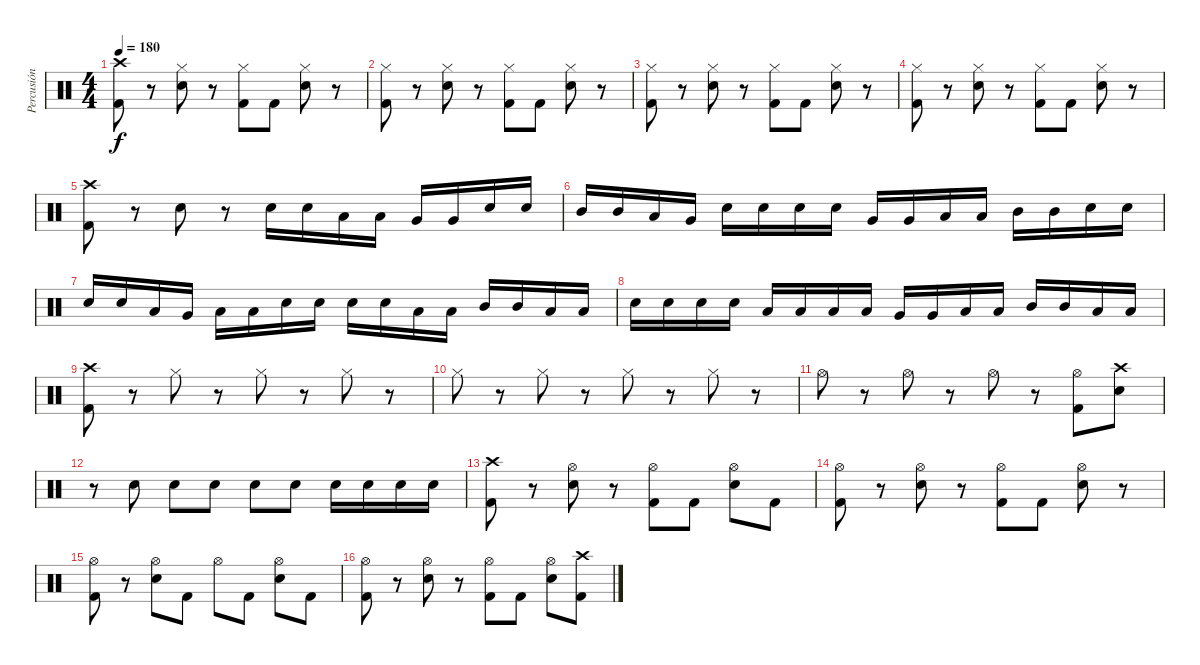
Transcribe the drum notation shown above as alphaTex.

\track ("Percusión" "Percusión") {instrument percussion}
\staff {score}
\articulation defaults
\ts (4 4)
\tempo 180
\clef neutral
\ks c
("Crash high (hit)" "Kick (hit) 2").8{dy f} r.8 ("Hi-Hat (closed)" "Electric Snare (hit)").8 r.8 ("Hi-Hat (closed)" "Kick (hit) 2").8 "Kick (hit) 2".8 ("Hi-Hat (closed)" "Electric Snare (hit)").8 r.8 |
("Hi-Hat (closed)" "Kick (hit) 2").8 r.8 ("Hi-Hat (closed)" "Electric Snare (hit)").8 r.8 ("Hi-Hat (closed)" "Kick (hit) 2").8 "Kick (hit) 2".8 ("Hi-Hat (closed)" "Electric Snare (hit)").8 r.8 |
("Hi-Hat (closed)" "Kick (hit) 2").8 r.8 ("Hi-Hat (closed)" "Electric Snare (hit)").8 r.8 ("Hi-Hat (closed)" "Kick (hit) 2").8 "Kick (hit) 2".8 ("Hi-Hat (closed)" "Electric Snare (hit)").8 r.8 |
("Hi-Hat (closed)" "Kick (hit) 2").8 r.8 ("Hi-Hat (closed)" "Electric Snare (hit)").8 r.8 ("Hi-Hat (closed)" "Kick (hit) 2").8 "Kick (hit) 2".8 ("Hi-Hat (closed)" "Electric Snare (hit)").8 r.8 |
("Crash high (hit)" "Kick (hit) 2").8 r.8 "Electric Snare (hit)".8 r.8 "Electric Snare (hit)".16 "Electric Snare (hit)".16 "Low Tom (hit)".16 "Low Tom (hit)".16 "Very Low Tom (hit)".16 "Very Low Tom (hit)".16 "Electric Snare (hit)".16 "Electric Snare (hit)".16 |
"Mid Tom (hit)".16 "Mid Tom (hit)".16 "Low Tom (hit)".16 "Very Low Tom (hit)".16 "Electric Snare (hit)".16 "Electric Snare (hit)".16 "Electric Snare (hit)".16 "Electric Snare (hit)".16 "Very Low Tom (hit)".16 "Very Low Tom (hit)".16 "Low Tom (hit)".16 "Low Tom (hit)".16 "Mid Tom (hit)".16 "Mid Tom (hit)".16 "Electric Snare (hit)".16 "Electric Snare (hit)".16 |
"Electric Snare (hit)".16 "Electric Snare (hit)".16 "Low Tom (hit)".16 "Very Low Tom (hit)".16 "Low Floor Tom (hit)".16 "Low Floor Tom (hit)".16 "Electric Snare (hit)".16 "Electric Snare (hit)".16 "Electric Snare (hit)".16 "Electric Snare (hit)".16 "Low Tom (hit)".16 "Low Tom (hit)".16 "Mid Tom (hit)".16 "Mid Tom (hit)".16 "Low Tom (hit)".16 "Low Tom (hit)".16 |
"Electric Snare (hit)".16 "Electric Snare (hit)".16 "Electric Snare (hit)".16 "Electric Snare (hit)".16 "Low Floor Tom (hit)".16 "Low Floor Tom (hit)".16 "Low Tom (hit)".16 "Low Tom (hit)".16 "Very Low Tom (hit)".16 "Very Low Tom (hit)".16 "Low Tom (hit)".16 "Low Tom (hit)".16 "Mid Tom (hit)".16 "Mid Tom (hit)".16 "Low Tom (hit)".16 "Low Tom (hit)".16 |
("Crash high (hit)" "Kick (hit) 2").8 r.8 "Hi-Hat (closed)".8 r.8 "Hi-Hat (closed)".8 r.8 "Hi-Hat (closed)".8 r.8 |
"Hi-Hat (closed)".8 r.8 "Hi-Hat (closed)".8 r.8 "Hi-Hat (closed)".8 r.8 "Hi-Hat (closed)".8 r.8 |
"Hi-Hat (open)".8 r.8 "Hi-Hat (open)".8 r.8 "Hi-Hat (open)".8 r.8 ("Hi-Hat (open)" "Kick (hit) 2").8 ("Crash high (hit)" "Electric Snare (hit)").8 |
r.8 "Electric Snare (hit)".8 "Electric Snare (hit)".8 "Electric Snare (hit)".8 "Electric Snare (hit)".8 "Electric Snare (hit)".8 "Electric Snare (hit)".16 "Electric Snare (hit)".16 "Electric Snare (hit)".16 "Electric Snare (hit)".16 |
("Crash high (hit)" "Kick (hit) 2").8 r.8 ("Hi-Hat (open)" "Electric Snare (hit)").8 r.8 ("Hi-Hat (open)" "Kick (hit) 2").8 "Kick (hit) 2".8 ("Hi-Hat (open)" "Electric Snare (hit)").8 "Kick (hit) 2".8 |
("Hi-Hat (open)" "Kick (hit) 2").8 r.8 ("Hi-Hat (open)" "Electric Snare (hit)").8 r.8 ("Hi-Hat (open)" "Kick (hit) 2").8 "Kick (hit) 2".8 ("Hi-Hat (open)" "Electric Snare (hit)").8 r.8 |
("Hi-Hat (open)" "Kick (hit) 2").8 r.8 ("Hi-Hat (open)" "Electric Snare (hit)").8 "Kick (hit) 2".8 "Hi-Hat (open)".8 "Kick (hit) 2".8 ("Hi-Hat (open)" "Electric Snare (hit)").8 "Kick (hit) 2".8 |
("Hi-Hat (open)" "Kick (hit) 2").8 r.8 ("Hi-Hat (open)" "Electric Snare (hit)").8 r.8 ("Hi-Hat (open)" "Kick (hit) 2").8 "Kick (hit) 2".8 ("Hi-Hat (open)" "Electric Snare (hit)").8 ("Crash high (hit)" "Kick (hit) 2").8
